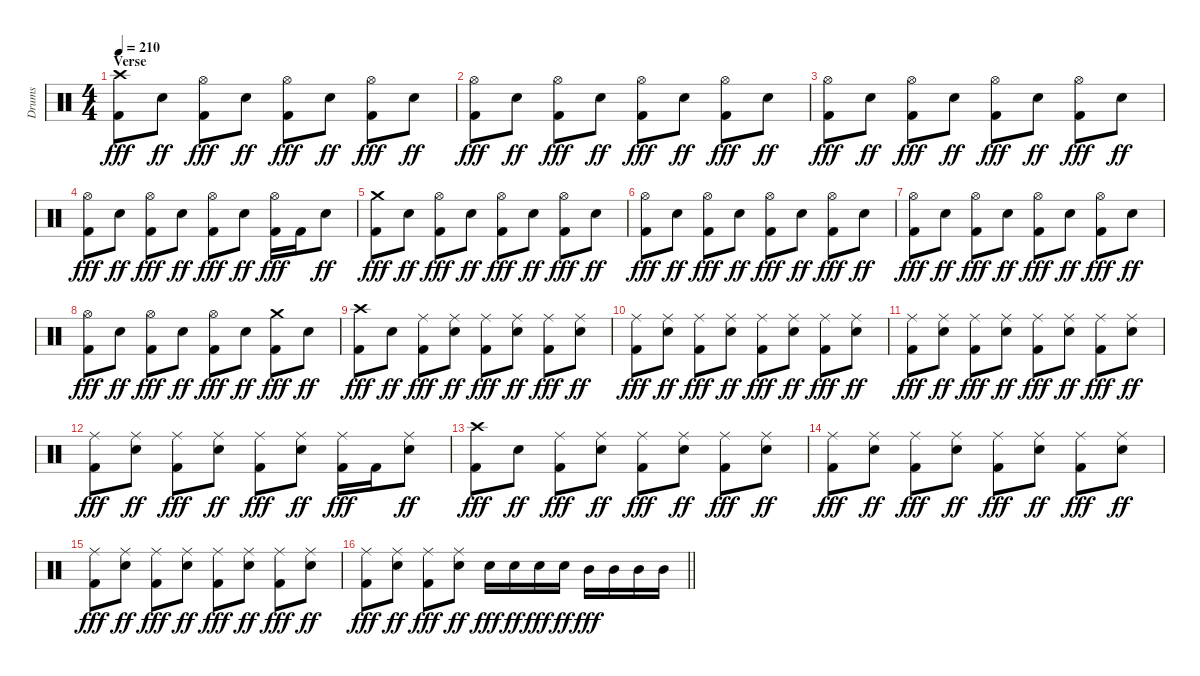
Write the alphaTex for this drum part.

\track ("Drums" "Drums") {instrument percussion}
\staff {score}
\articulation defaults
\ts (4 4)
\section ("" "Verse")
\tempo 210
\clef neutral
\ks c
("Crash high (hit)" "Kick (hit) 2").8{dy fff} "Snare (hit) 2".8{dy ff} ("Hi-Hat (open)" "Kick (hit) 2").8{dy fff} "Snare (hit) 2".8{dy ff} ("Hi-Hat (open)" "Kick (hit) 2").8{dy fff} "Snare (hit) 2".8{dy ff} ("Hi-Hat (open)" "Kick (hit) 2").8{dy fff} "Snare (hit) 2".8{dy ff} |
("Hi-Hat (open)" "Kick (hit) 2").8{dy fff} "Snare (hit) 2".8{dy ff} ("Hi-Hat (open)" "Kick (hit) 2").8{dy fff} "Snare (hit) 2".8{dy ff} ("Hi-Hat (open)" "Kick (hit) 2").8{dy fff} "Snare (hit) 2".8{dy ff} ("Hi-Hat (open)" "Kick (hit) 2").8{dy fff} "Snare (hit) 2".8{dy ff} |
("Hi-Hat (open)" "Kick (hit) 2").8{dy fff} "Snare (hit) 2".8{dy ff} ("Hi-Hat (open)" "Kick (hit) 2").8{dy fff} "Snare (hit) 2".8{dy ff} ("Hi-Hat (open)" "Kick (hit) 2").8{dy fff} "Snare (hit) 2".8{dy ff} ("Hi-Hat (open)" "Kick (hit) 2").8{dy fff} "Snare (hit) 2".8{dy ff} |
("Hi-Hat (open)" "Kick (hit) 2").8{dy fff} "Snare (hit) 2".8{dy ff} ("Hi-Hat (open)" "Kick (hit) 2").8{dy fff} "Snare (hit) 2".8{dy ff} ("Hi-Hat (open)" "Kick (hit) 2").8{dy fff} "Snare (hit) 2".8{dy ff} ("Hi-Hat (open)" "Kick (hit) 2").16{dy fff} "Kick (hit) 2".16 "Snare (hit) 2".8{dy ff} |
("Crash medium (hit)" "Kick (hit) 2").8{dy fff} "Snare (hit) 2".8{dy ff} ("Hi-Hat (open)" "Kick (hit) 2").8{dy fff} "Snare (hit) 2".8{dy ff} ("Hi-Hat (open)" "Kick (hit) 2").8{dy fff} "Snare (hit) 2".8{dy ff} ("Hi-Hat (open)" "Kick (hit) 2").8{dy fff} "Snare (hit) 2".8{dy ff} |
("Hi-Hat (open)" "Kick (hit) 2").8{dy fff} "Snare (hit) 2".8{dy ff} ("Hi-Hat (open)" "Kick (hit) 2").8{dy fff} "Snare (hit) 2".8{dy ff} ("Hi-Hat (open)" "Kick (hit) 2").8{dy fff} "Snare (hit) 2".8{dy ff} ("Hi-Hat (open)" "Kick (hit) 2").8{dy fff} "Snare (hit) 2".8{dy ff} |
("Hi-Hat (open)" "Kick (hit) 2").8{dy fff} "Snare (hit) 2".8{dy ff} ("Hi-Hat (open)" "Kick (hit) 2").8{dy fff} "Snare (hit) 2".8{dy ff} ("Hi-Hat (open)" "Kick (hit) 2").8{dy fff} "Snare (hit) 2".8{dy ff} ("Hi-Hat (open)" "Kick (hit) 2").8{dy fff} "Snare (hit) 2".8{dy ff} |
("Hi-Hat (open)" "Kick (hit) 2").8{dy fff} "Snare (hit) 2".8{dy ff} ("Hi-Hat (open)" "Kick (hit) 2").8{dy fff} "Snare (hit) 2".8{dy ff} ("Hi-Hat (open)" "Kick (hit) 2").8{dy fff} "Snare (hit) 2".8{dy ff} ("Crash medium (hit)" "Kick (hit) 2").8{dy fff} "Snare (hit) 2".8{dy ff} |
("Crash high (hit)" "Kick (hit) 2").8{dy fff} "Snare (hit) 2".8{dy ff} ("Ride (middle)" "Kick (hit) 2").8{dy fff} ("Ride (middle)" "Snare (hit) 2").8{dy ff} ("Ride (middle)" "Kick (hit) 2").8{dy fff} ("Ride (middle)" "Snare (hit) 2").8{dy ff} ("Ride (middle)" "Kick (hit) 2").8{dy fff} ("Ride (middle)" "Snare (hit) 2").8{dy ff} |
("Ride (middle)" "Kick (hit) 2").8{dy fff} ("Ride (middle)" "Snare (hit) 2").8{dy ff} ("Ride (middle)" "Kick (hit) 2").8{dy fff} ("Ride (middle)" "Snare (hit) 2").8{dy ff} ("Ride (middle)" "Kick (hit) 2").8{dy fff} ("Ride (middle)" "Snare (hit) 2").8{dy ff} ("Ride (middle)" "Kick (hit) 2").8{dy fff} ("Ride (middle)" "Snare (hit) 2").8{dy ff} |
("Ride (middle)" "Kick (hit) 2").8{dy fff} ("Ride (middle)" "Snare (hit) 2").8{dy ff} ("Ride (middle)" "Kick (hit) 2").8{dy fff} ("Ride (middle)" "Snare (hit) 2").8{dy ff} ("Ride (middle)" "Kick (hit) 2").8{dy fff} ("Ride (middle)" "Snare (hit) 2").8{dy ff} ("Ride (middle)" "Kick (hit) 2").8{dy fff} ("Ride (middle)" "Snare (hit) 2").8{dy ff} |
("Ride (middle)" "Kick (hit) 2").8{dy fff} ("Ride (middle)" "Snare (hit) 2").8{dy ff} ("Ride (middle)" "Kick (hit) 2").8{dy fff} ("Ride (middle)" "Snare (hit) 2").8{dy ff} ("Ride (middle)" "Kick (hit) 2").8{dy fff} ("Ride (middle)" "Snare (hit) 2").8{dy ff} ("Ride (middle)" "Kick (hit) 2").16{dy fff} "Kick (hit) 2".16 ("Ride (middle)" "Snare (hit) 2").8{dy ff} |
("Crash high (hit)" "Kick (hit) 2").8{dy fff} "Snare (hit) 2".8{dy ff} ("Ride (middle)" "Kick (hit) 2").8{dy fff} ("Ride (middle)" "Snare (hit) 2").8{dy ff} ("Ride (middle)" "Kick (hit) 2").8{dy fff} ("Ride (middle)" "Snare (hit) 2").8{dy ff} ("Ride (middle)" "Kick (hit) 2").8{dy fff} ("Ride (middle)" "Snare (hit) 2").8{dy ff} |
("Ride (middle)" "Kick (hit) 2").8{dy fff} ("Ride (middle)" "Snare (hit) 2").8{dy ff} ("Ride (middle)" "Kick (hit) 2").8{dy fff} ("Ride (middle)" "Snare (hit) 2").8{dy ff} ("Ride (middle)" "Kick (hit) 2").8{dy fff} ("Ride (middle)" "Snare (hit) 2").8{dy ff} ("Ride (middle)" "Kick (hit) 2").8{dy fff} ("Ride (middle)" "Snare (hit) 2").8{dy ff} |
("Ride (middle)" "Kick (hit) 2").8{dy fff} ("Ride (middle)" "Snare (hit) 2").8{dy ff} ("Ride (middle)" "Kick (hit) 2").8{dy fff} ("Ride (middle)" "Snare (hit) 2").8{dy ff} ("Ride (middle)" "Kick (hit) 2").8{dy fff} ("Ride (middle)" "Snare (hit) 2").8{dy ff} ("Ride (middle)" "Kick (hit) 2").8{dy fff} ("Ride (middle)" "Snare (hit) 2").8{dy ff} |
\barLineRight lightlight
("Ride (middle)" "Kick (hit) 2").8{dy fff} ("Ride (middle)" "Snare (hit) 2").8{dy ff} ("Ride (middle)" "Kick (hit) 2").8{dy fff} ("Ride (middle)" "Snare (hit) 2").8{dy ff} "Snare (hit) 2".16{dy fff} "Snare (hit) 2".16{dy ff} "Snare (hit) 2".16{dy fff} "Snare (hit) 2".16{dy ff} "Mid Tom (hit)".16{dy fff} "Mid Tom (hit)".16 "Mid Tom (hit)".16 "Mid Tom (hit)".16
